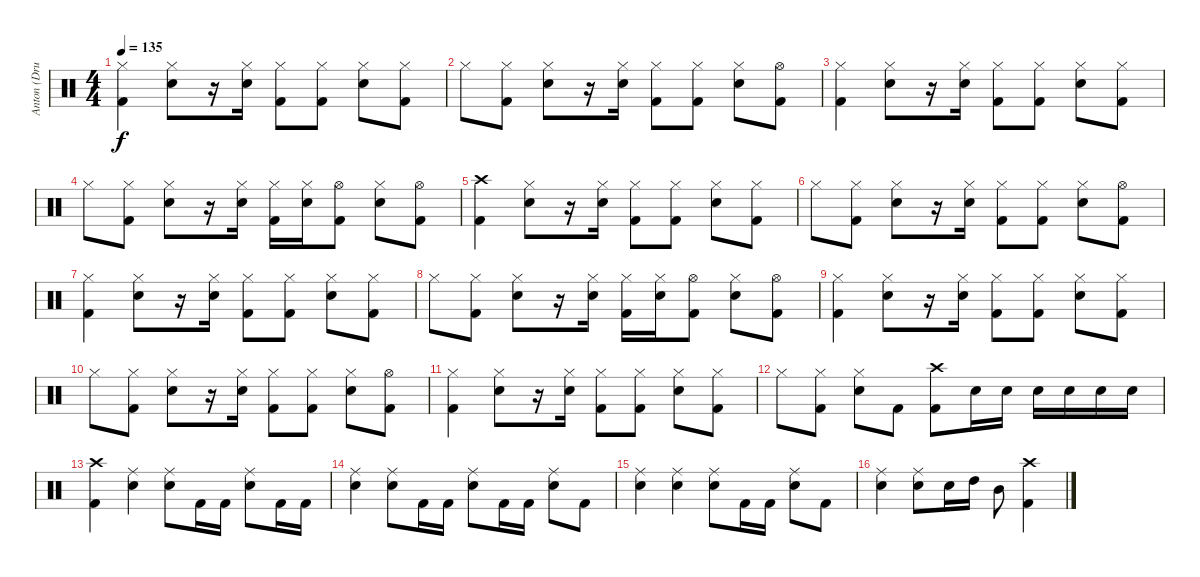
\track ("Anton (Drum)" "Anton (Dru") {instrument percussion}
\staff {score}
\articulation defaults
\ts (4 4)
\tempo 135
\clef neutral
\ks c
("Kick (hit) 2" "Hi-Hat (closed)").4{dy f} ("Snare (hit) 2" "Hi-Hat (closed)").8 r.16 ("Snare (hit) 2" "Hi-Hat (closed)").16 ("Kick (hit) 2" "Hi-Hat (closed)").8 ("Kick (hit) 2" "Hi-Hat (closed)").8 ("Snare (hit) 2" "Hi-Hat (closed)").8 ("Kick (hit) 2" "Hi-Hat (closed)").8 |
"Hi-Hat (closed)".8 ("Kick (hit) 2" "Hi-Hat (closed)").8 ("Snare (hit) 2" "Hi-Hat (closed)").8 r.16 ("Snare (hit) 2" "Hi-Hat (closed)").16 ("Kick (hit) 2" "Hi-Hat (closed)").8 ("Kick (hit) 2" "Hi-Hat (closed)").8 ("Snare (hit) 2" "Hi-Hat (closed)").8 ("Kick (hit) 2" "Hi-Hat (open)").8 |
("Kick (hit) 2" "Hi-Hat (closed)").4 ("Snare (hit) 2" "Hi-Hat (closed)").8 r.16 ("Snare (hit) 2" "Hi-Hat (closed)").16 ("Kick (hit) 2" "Hi-Hat (closed)").8 ("Kick (hit) 2" "Hi-Hat (closed)").8 ("Snare (hit) 2" "Hi-Hat (closed)").8 ("Kick (hit) 2" "Hi-Hat (closed)").8 |
"Hi-Hat (closed)".8 ("Kick (hit) 2" "Hi-Hat (closed)").8 ("Snare (hit) 2" "Hi-Hat (closed)").8 r.16 ("Snare (hit) 2" "Hi-Hat (closed)").16 ("Kick (hit) 2" "Hi-Hat (closed)").16 ("Snare (hit) 2" "Hi-Hat (closed)").16 ("Kick (hit) 2" "Hi-Hat (open)").8 ("Snare (hit) 2" "Hi-Hat (closed)").8 ("Kick (hit) 2" "Hi-Hat (open)").8 |
("Crash high (hit)" "Kick (hit) 2").4 ("Snare (hit) 2" "Hi-Hat (closed)").8 r.16 ("Snare (hit) 2" "Hi-Hat (closed)").16 ("Kick (hit) 2" "Hi-Hat (closed)").8 ("Kick (hit) 2" "Hi-Hat (closed)").8 ("Snare (hit) 2" "Hi-Hat (closed)").8 ("Kick (hit) 2" "Hi-Hat (closed)").8 |
"Hi-Hat (closed)".8 ("Kick (hit) 2" "Hi-Hat (closed)").8 ("Snare (hit) 2" "Hi-Hat (closed)").8 r.16 ("Snare (hit) 2" "Hi-Hat (closed)").16 ("Kick (hit) 2" "Hi-Hat (closed)").8 ("Kick (hit) 2" "Hi-Hat (closed)").8 ("Snare (hit) 2" "Hi-Hat (closed)").8 ("Kick (hit) 2" "Hi-Hat (open)").8 |
("Kick (hit) 2" "Hi-Hat (closed)").4 ("Snare (hit) 2" "Hi-Hat (closed)").8 r.16 ("Snare (hit) 2" "Hi-Hat (closed)").16 ("Kick (hit) 2" "Hi-Hat (closed)").8 ("Kick (hit) 2" "Hi-Hat (closed)").8 ("Snare (hit) 2" "Hi-Hat (closed)").8 ("Kick (hit) 2" "Hi-Hat (closed)").8 |
"Hi-Hat (closed)".8 ("Kick (hit) 2" "Hi-Hat (closed)").8 ("Snare (hit) 2" "Hi-Hat (closed)").8 r.16 ("Snare (hit) 2" "Hi-Hat (closed)").16 ("Kick (hit) 2" "Hi-Hat (closed)").16 ("Snare (hit) 2" "Hi-Hat (closed)").16 ("Kick (hit) 2" "Hi-Hat (open)").8 ("Snare (hit) 2" "Hi-Hat (closed)").8 ("Kick (hit) 2" "Hi-Hat (open)").8 |
("Kick (hit) 2" "Hi-Hat (closed)").4 ("Snare (hit) 2" "Hi-Hat (closed)").8 r.16 ("Snare (hit) 2" "Hi-Hat (closed)").16 ("Kick (hit) 2" "Hi-Hat (closed)").8 ("Kick (hit) 2" "Hi-Hat (closed)").8 ("Snare (hit) 2" "Hi-Hat (closed)").8 ("Kick (hit) 2" "Hi-Hat (closed)").8 |
"Hi-Hat (closed)".8 ("Kick (hit) 2" "Hi-Hat (closed)").8 ("Snare (hit) 2" "Hi-Hat (closed)").8 r.16 ("Snare (hit) 2" "Hi-Hat (closed)").16 ("Kick (hit) 2" "Hi-Hat (closed)").8 ("Kick (hit) 2" "Hi-Hat (closed)").8 ("Snare (hit) 2" "Hi-Hat (closed)").8 ("Kick (hit) 2" "Hi-Hat (open)").8 |
("Kick (hit) 2" "Hi-Hat (closed)").4 ("Snare (hit) 2" "Hi-Hat (closed)").8 r.16 ("Snare (hit) 2" "Hi-Hat (closed)").16 ("Kick (hit) 2" "Hi-Hat (closed)").8 ("Kick (hit) 2" "Hi-Hat (closed)").8 ("Snare (hit) 2" "Hi-Hat (closed)").8 ("Kick (hit) 2" "Hi-Hat (closed)").8 |
"Hi-Hat (closed)".8 ("Kick (hit) 2" "Hi-Hat (closed)").8 ("Snare (hit) 2" "Hi-Hat (closed)").8 "Kick (hit) 2".8 ("Kick (hit) 2" "Crash high (hit)").8 "Snare (hit) 2".16 "Snare (hit) 2".16 "Snare (hit) 2".16 "Snare (hit) 2".16 "Snare (hit) 2".16 "Snare (hit) 2".16 |
("Kick (hit) 2" "Crash high (hit)").4 ("Snare (hit) 2" "Ride (middle)").4 ("Snare (hit) 2" "Ride (middle)").8 "Kick (hit) 2".16 "Kick (hit) 2".16 ("Snare (hit) 2" "Ride (middle)").8 "Kick (hit) 2".16 "Kick (hit) 2".16 |
("Snare (hit) 2" "Ride (middle)").4 ("Snare (hit) 2" "Ride (middle)").8 "Kick (hit) 2".16 "Kick (hit) 2".16 ("Snare (hit) 2" "Ride (middle)").8 "Kick (hit) 2".16 "Kick (hit) 2".16 ("Snare (hit) 2" "Ride (middle)").8 "Kick (hit) 2".8 |
("Snare (hit) 2" "Ride (middle)").4 ("Snare (hit) 2" "Ride (middle)").4 ("Snare (hit) 2" "Ride (middle)").8 "Kick (hit) 2".16 "Kick (hit) 2".16 ("Snare (hit) 2" "Ride (middle)").8 "Kick (hit) 2".8 |
("Snare (hit) 2" "Ride (middle)").4 ("Snare (hit) 2" "Ride (middle)").8 "Snare (hit) 2".16 "High Tom (hit)".16 "Mid Tom (hit)".8 ("Kick (hit) 2" "Crash high (hit)").4
